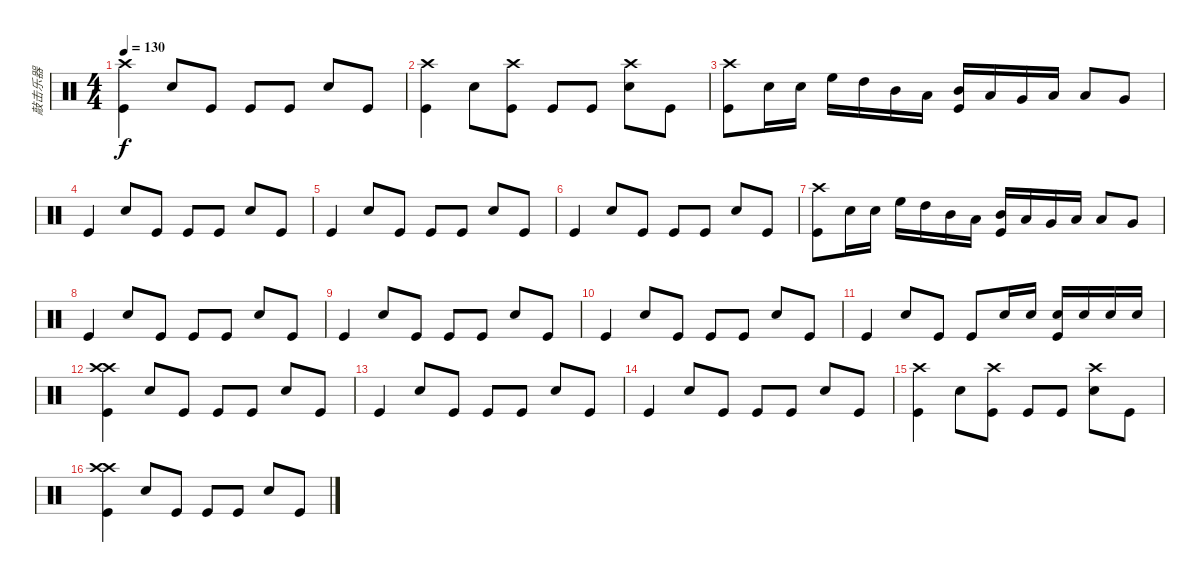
\track ("敲击乐器" "敲击乐器") {instrument percussion}
\staff {score}
\articulation defaults
\ts (4 4)
\tempo 130
\clef neutral
\ks c
("Crash high (hit)" "Kick (hit)").4{dy f} "Snare (hit) 2".8 "Kick (hit)".8 "Kick (hit)".8 "Kick (hit)".8 "Snare (hit) 2".8 "Kick (hit)".8 |
("Crash high (hit)" "Kick (hit)").4 "Snare (hit) 2".8 ("Crash high (hit)" "Kick (hit)").8 "Kick (hit)".8 "Kick (hit)".8 ("Crash high (hit)" "Snare (hit) 2").8 "Kick (hit)".8 |
("Crash high (hit)" "Kick (hit)").8 "Snare (hit) 2".16 "Snare (hit) 2".16 "High Floor Tom (hit)".16 "High Tom (hit)".16 "Mid Tom (hit)".16 "Low Tom (hit)".16 ("Mid Tom (hit)" "Kick (hit)").16 "Low Tom (hit)".16 "Very Low Tom (hit)".16 "Low Floor Tom (hit)".16 "Low Tom (hit)".8 "Very Low Tom (hit)".8 |
"Kick (hit)".4 "Snare (hit) 2".8 "Kick (hit)".8 "Kick (hit)".8 "Kick (hit)".8 "Snare (hit) 2".8 "Kick (hit)".8 |
"Kick (hit)".4 "Snare (hit) 2".8 "Kick (hit)".8 "Kick (hit)".8 "Kick (hit)".8 "Snare (hit) 2".8 "Kick (hit)".8 |
"Kick (hit)".4 "Snare (hit) 2".8 "Kick (hit)".8 "Kick (hit)".8 "Kick (hit)".8 "Snare (hit) 2".8 "Kick (hit)".8 |
("Crash high (hit)" "Kick (hit)").8 "Snare (hit) 2".16 "Snare (hit) 2".16 "High Floor Tom (hit)".16 "High Tom (hit)".16 "Mid Tom (hit)".16 "Low Tom (hit)".16 ("Mid Tom (hit)" "Kick (hit)").16 "Low Tom (hit)".16 "Very Low Tom (hit)".16 "Low Floor Tom (hit)".16 "Low Tom (hit)".8 "Very Low Tom (hit)".8 |
"Kick (hit)".4 "Snare (hit) 2".8 "Kick (hit)".8 "Kick (hit)".8 "Kick (hit)".8 "Snare (hit) 2".8 "Kick (hit)".8 |
"Kick (hit)".4 "Snare (hit) 2".8 "Kick (hit)".8 "Kick (hit)".8 "Kick (hit)".8 "Snare (hit) 2".8 "Kick (hit)".8 |
"Kick (hit)".4 "Snare (hit) 2".8 "Kick (hit)".8 "Kick (hit)".8 "Kick (hit)".8 "Snare (hit) 2".8 "Kick (hit)".8 |
"Kick (hit)".4 "Snare (hit) 2".8 "Kick (hit)".8 "Kick (hit)".8 "Snare (hit) 2".16 "Snare (hit) 2".16 ("Snare (hit) 2" "Kick (hit)").16 "Snare (hit) 2".16 "Snare (hit) 2".16 "Snare (hit) 2".16 |
("Crash high (hit)" "Crash high (hit)" "Kick (hit)").4 "Snare (hit) 2".8 "Kick (hit)".8 "Kick (hit)".8 "Kick (hit)".8 "Snare (hit) 2".8 "Kick (hit)".8 |
"Kick (hit)".4 "Snare (hit) 2".8 "Kick (hit)".8 "Kick (hit)".8 "Kick (hit)".8 "Snare (hit) 2".8 "Kick (hit)".8 |
"Kick (hit)".4 "Snare (hit) 2".8 "Kick (hit)".8 "Kick (hit)".8 "Kick (hit)".8 "Snare (hit) 2".8 "Kick (hit)".8 |
("Crash high (hit)" "Kick (hit)").4 "Snare (hit) 2".8 ("Crash high (hit)" "Kick (hit)").8 "Kick (hit)".8 "Kick (hit)".8 ("Crash high (hit)" "Snare (hit) 2").8 "Kick (hit)".8 |
("Crash high (hit)" "Crash high (hit)" "Kick (hit)").4 "Snare (hit) 2".8 "Kick (hit)".8 "Kick (hit)".8 "Kick (hit)".8 "Snare (hit) 2".8 "Kick (hit)".8
